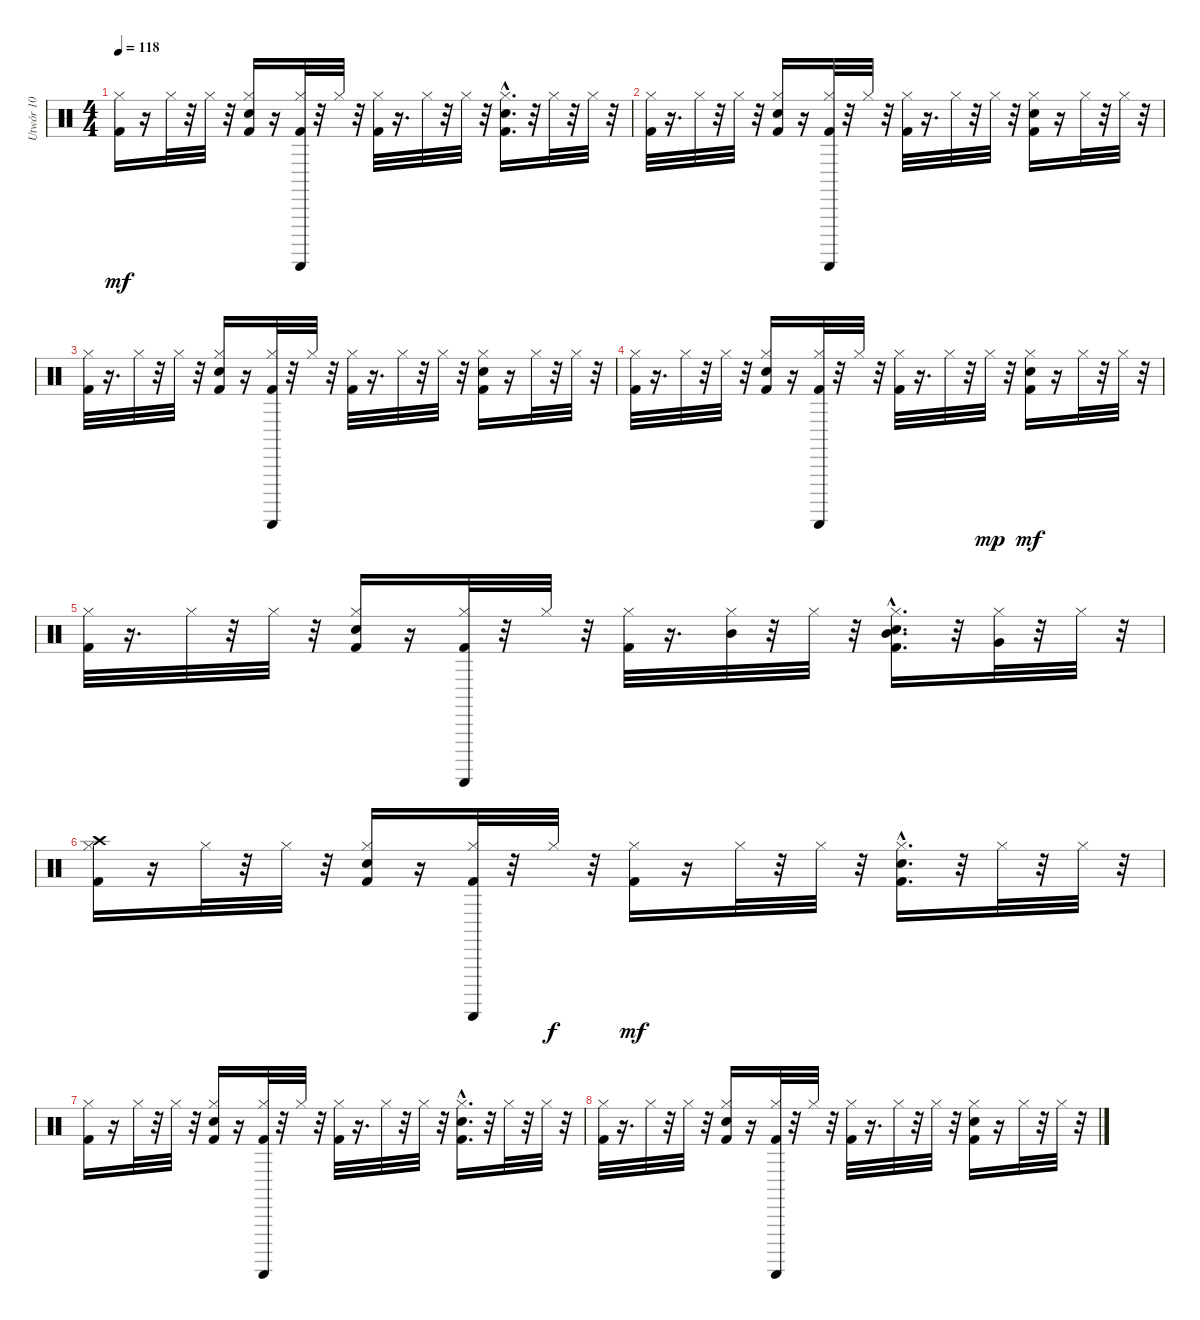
\track ("Utwór 10" "Utwór 10") {instrument percussion}
\staff {score}
\articulation defaults
\ts (4 4)
\tempo 118
\clef neutral
\ks c
("Kick (hit) 2" "Hi-Hat (closed)").16{dy mf} r.16 "Hi-Hat (closed)".32 r.32 "Hi-Hat (closed)".32 r.32 ("Kick (hit) 2" "Snare (hit) 2" "Hi-Hat (closed)").16 r.16 ("Kick (hit) 2" "Hi-Hat (closed)" "Guiro (scrap-return)").32 r.32 "Hi-Hat (closed)".32 r.32 ("Kick (hit) 2" "Hi-Hat (closed)").32 r.16{d} "Hi-Hat (closed)".32 r.32 "Hi-Hat (closed)".32 r.32 ("Kick (hit) 2" "Snare (hit) 2"{hac} "Hi-Hat (closed)").16{d} r.32 "Hi-Hat (closed)".32 r.32 "Hi-Hat (closed)".32 r.32 |
("Kick (hit) 2" "Hi-Hat (closed)").32 r.16{d} "Hi-Hat (closed)".32 r.32 "Hi-Hat (closed)".32 r.32 ("Kick (hit) 2" "Snare (hit) 2" "Hi-Hat (closed)").16 r.16 ("Kick (hit) 2" "Hi-Hat (closed)" "Guiro (scrap-return)").32 r.32 "Hi-Hat (closed)".32 r.32 ("Kick (hit) 2" "Hi-Hat (closed)").32 r.16{d} "Hi-Hat (closed)".32 r.32 "Hi-Hat (closed)".32 r.32 ("Kick (hit) 2" "Snare (hit) 2" "Hi-Hat (closed)").16 r.16 "Hi-Hat (closed)".32 r.32 "Hi-Hat (closed)".32 r.32 |
("Kick (hit) 2" "Hi-Hat (closed)").32 r.16{d} "Hi-Hat (closed)".32 r.32 "Hi-Hat (closed)".32 r.32 ("Kick (hit) 2" "Snare (hit) 2" "Hi-Hat (closed)").16 r.16 ("Kick (hit) 2" "Hi-Hat (closed)" "Guiro (scrap-return)").32 r.32 "Hi-Hat (closed)".32 r.32 ("Kick (hit) 2" "Hi-Hat (closed)").32 r.16{d} "Hi-Hat (closed)".32 r.32 "Hi-Hat (closed)".32 r.32 ("Kick (hit) 2" "Snare (hit) 2" "Hi-Hat (closed)").16 r.16 "Hi-Hat (closed)".32 r.32 "Hi-Hat (closed)".32 r.32 |
("Kick (hit) 2" "Hi-Hat (closed)").32 r.16{d} "Hi-Hat (closed)".32 r.32 "Hi-Hat (closed)".32 r.32 ("Kick (hit) 2" "Snare (hit) 2" "Hi-Hat (closed)").16 r.16 ("Kick (hit) 2" "Hi-Hat (closed)" "Guiro (scrap-return)").32 r.32 "Hi-Hat (closed)".32 r.32 ("Kick (hit) 2" "Hi-Hat (closed)").32 r.16{d} "Hi-Hat (closed)".32 r.32 "Hi-Hat (closed)".32{dy mp} r.32 ("Kick (hit) 2" "Snare (hit) 2" "Hi-Hat (closed)").16{dy mf} r.16 "Hi-Hat (closed)".32 r.32 "Hi-Hat (closed)".32 r.32 |
("Kick (hit) 2" "Hi-Hat (closed)").32 r.16{d} "Hi-Hat (closed)".32 r.32 "Hi-Hat (closed)".32 r.32 ("Kick (hit) 2" "Snare (hit) 2" "Hi-Hat (closed)").16 r.16 ("Kick (hit) 2" "Hi-Hat (closed)" "Guiro (scrap-return)").32 r.32 "Hi-Hat (closed)".32 r.32 ("Kick (hit) 2" "Hi-Hat (closed)").32 r.16{d} ("Hi-Hat (closed)" "Mid Tom (hit)").32 r.32 "Hi-Hat (closed)".32 r.32 ("Kick (hit) 2" "Snare (hit) 2"{hac} "Hi-Hat (closed)" "Mid Tom (hit)").16{d} r.32 ("Hi-Hat (closed)" "Very Low Tom (hit)").32 r.32 "Hi-Hat (closed)".32 r.32 |
("Kick (hit) 2" "Hi-Hat (closed)" "Crash high (hit)").16 r.16 "Hi-Hat (closed)".32 r.32 "Hi-Hat (closed)".32 r.32 ("Kick (hit) 2" "Snare (hit) 2" "Hi-Hat (closed)").16 r.16 ("Kick (hit) 2" "Hi-Hat (closed)" "Guiro (scrap-return)").32 r.32 "Hi-Hat (closed)".32{dy f} r.32 ("Kick (hit) 2" "Hi-Hat (closed)").16{dy mf} r.16 "Hi-Hat (closed)".32 r.32 "Hi-Hat (closed)".32 r.32 ("Kick (hit) 2" "Snare (hit) 2"{hac} "Hi-Hat (closed)").16{d} r.32 "Hi-Hat (closed)".32 r.32 "Hi-Hat (closed)".32 r.32 |
("Kick (hit) 2" "Hi-Hat (closed)").16 r.16 "Hi-Hat (closed)".32 r.32 "Hi-Hat (closed)".32 r.32 ("Kick (hit) 2" "Snare (hit) 2" "Hi-Hat (closed)").16 r.16 ("Kick (hit) 2" "Hi-Hat (closed)" "Guiro (scrap-return)").32 r.32 "Hi-Hat (closed)".32 r.32 ("Kick (hit) 2" "Hi-Hat (closed)").32 r.16{d} "Hi-Hat (closed)".32 r.32 "Hi-Hat (closed)".32 r.32 ("Kick (hit) 2" "Snare (hit) 2"{hac} "Hi-Hat (closed)").16{d} r.32 "Hi-Hat (closed)".32 r.32 "Hi-Hat (closed)".32 r.32 |
("Kick (hit) 2" "Hi-Hat (closed)").32 r.16{d} "Hi-Hat (closed)".32 r.32 "Hi-Hat (closed)".32 r.32 ("Kick (hit) 2" "Snare (hit) 2" "Hi-Hat (closed)").16 r.16 ("Kick (hit) 2" "Hi-Hat (closed)" "Guiro (scrap-return)").32 r.32 "Hi-Hat (closed)".32 r.32 ("Kick (hit) 2" "Hi-Hat (closed)").32 r.16{d} "Hi-Hat (closed)".32 r.32 "Hi-Hat (closed)".32 r.32 ("Kick (hit) 2" "Snare (hit) 2" "Hi-Hat (closed)").16 r.16 "Hi-Hat (closed)".32 r.32 "Hi-Hat (closed)".32 r.32
